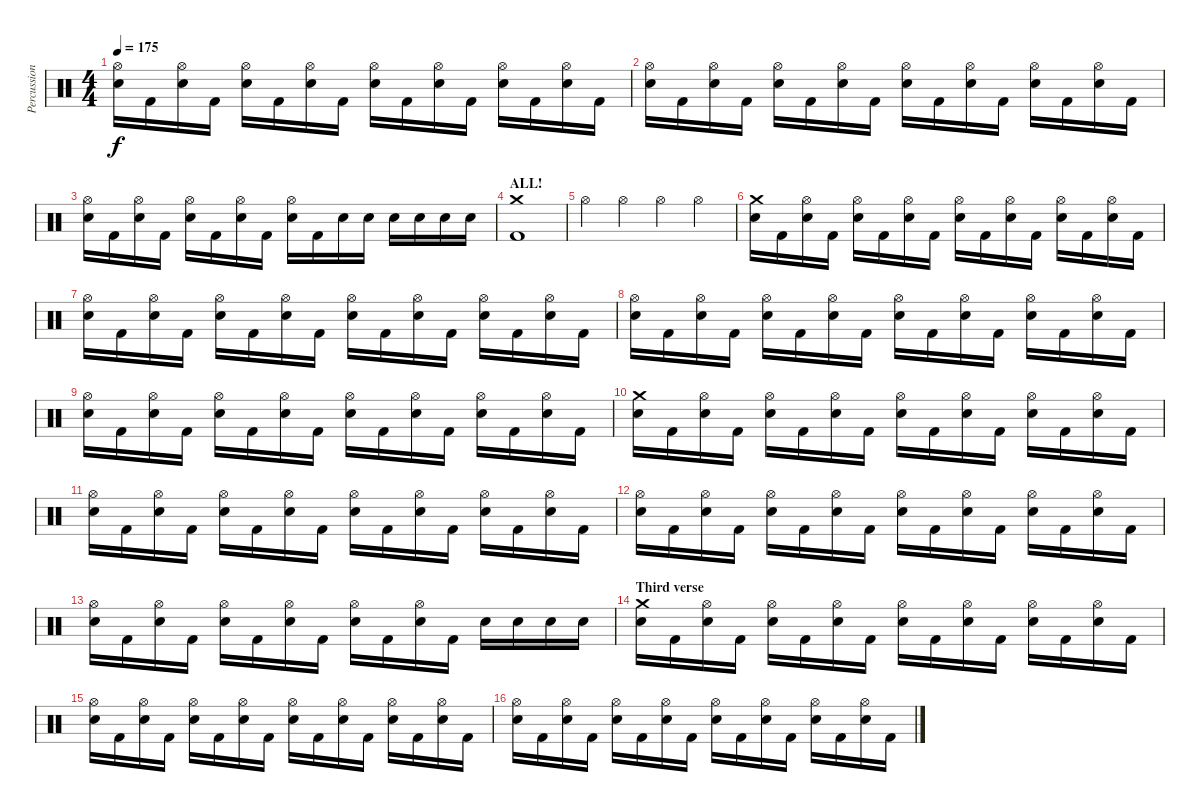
\track ("Percussion" "Percussion") {instrument percussion}
\staff {score}
\articulation defaults
\ts (4 4)
\tempo 175
\clef neutral
\ks c
("Hi-Hat (open)" "Snare (hit) 2").16{dy f} "Kick (hit) 2".16 ("Hi-Hat (open)" "Snare (hit) 2").16 "Kick (hit) 2".16 ("Hi-Hat (open)" "Snare (hit) 2").16 "Kick (hit) 2".16 ("Hi-Hat (open)" "Snare (hit) 2").16 "Kick (hit) 2".16 ("Hi-Hat (open)" "Snare (hit) 2").16 "Kick (hit) 2".16 ("Hi-Hat (open)" "Snare (hit) 2").16 "Kick (hit) 2".16 ("Hi-Hat (open)" "Snare (hit) 2").16 "Kick (hit) 2".16 ("Hi-Hat (open)" "Snare (hit) 2").16 "Kick (hit) 2".16 |
("Hi-Hat (open)" "Snare (hit) 2").16 "Kick (hit) 2".16 ("Hi-Hat (open)" "Snare (hit) 2").16 "Kick (hit) 2".16 ("Hi-Hat (open)" "Snare (hit) 2").16 "Kick (hit) 2".16 ("Hi-Hat (open)" "Snare (hit) 2").16 "Kick (hit) 2".16 ("Hi-Hat (open)" "Snare (hit) 2").16 "Kick (hit) 2".16 ("Hi-Hat (open)" "Snare (hit) 2").16 "Kick (hit) 2".16 ("Hi-Hat (open)" "Snare (hit) 2").16 "Kick (hit) 2".16 ("Hi-Hat (open)" "Snare (hit) 2").16 "Kick (hit) 2".16 |
("Hi-Hat (open)" "Snare (hit) 2").16 "Kick (hit) 2".16 ("Hi-Hat (open)" "Snare (hit) 2").16 "Kick (hit) 2".16 ("Hi-Hat (open)" "Snare (hit) 2").16 "Kick (hit) 2".16 ("Hi-Hat (open)" "Snare (hit) 2").16 "Kick (hit) 2".16 ("Hi-Hat (open)" "Snare (hit) 2").16 "Kick (hit) 2".16 "Snare (hit) 2".16 "Snare (hit) 2".16 "Snare (hit) 2".16 "Snare (hit) 2".16 "Snare (hit) 2".16 "Snare (hit) 2".16 |
\section ("" "ALL!")
("Crash medium (hit)" "Kick (hit) 2").1 |
"Hi-Hat (open)".4 "Hi-Hat (open)".4 "Hi-Hat (open)".4 "Hi-Hat (open)".4 |
("Crash medium (hit)" "Snare (hit) 2").16 "Kick (hit) 2".16 ("Hi-Hat (open)" "Snare (hit) 2").16 "Kick (hit) 2".16 ("Hi-Hat (open)" "Snare (hit) 2").16 "Kick (hit) 2".16 ("Hi-Hat (open)" "Snare (hit) 2").16 "Kick (hit) 2".16 ("Hi-Hat (open)" "Snare (hit) 2").16 "Kick (hit) 2".16 ("Hi-Hat (open)" "Snare (hit) 2").16 "Kick (hit) 2".16 ("Hi-Hat (open)" "Snare (hit) 2").16 "Kick (hit) 2".16 ("Hi-Hat (open)" "Snare (hit) 2").16 "Kick (hit) 2".16 |
("Hi-Hat (open)" "Snare (hit) 2").16 "Kick (hit) 2".16 ("Hi-Hat (open)" "Snare (hit) 2").16 "Kick (hit) 2".16 ("Hi-Hat (open)" "Snare (hit) 2").16 "Kick (hit) 2".16 ("Hi-Hat (open)" "Snare (hit) 2").16 "Kick (hit) 2".16 ("Hi-Hat (open)" "Snare (hit) 2").16 "Kick (hit) 2".16 ("Hi-Hat (open)" "Snare (hit) 2").16 "Kick (hit) 2".16 ("Hi-Hat (open)" "Snare (hit) 2").16 "Kick (hit) 2".16 ("Hi-Hat (open)" "Snare (hit) 2").16 "Kick (hit) 2".16 |
("Hi-Hat (open)" "Snare (hit) 2").16 "Kick (hit) 2".16 ("Hi-Hat (open)" "Snare (hit) 2").16 "Kick (hit) 2".16 ("Hi-Hat (open)" "Snare (hit) 2").16 "Kick (hit) 2".16 ("Hi-Hat (open)" "Snare (hit) 2").16 "Kick (hit) 2".16 ("Hi-Hat (open)" "Snare (hit) 2").16 "Kick (hit) 2".16 ("Hi-Hat (open)" "Snare (hit) 2").16 "Kick (hit) 2".16 ("Hi-Hat (open)" "Snare (hit) 2").16 "Kick (hit) 2".16 ("Hi-Hat (open)" "Snare (hit) 2").16 "Kick (hit) 2".16 |
("Hi-Hat (open)" "Snare (hit) 2").16 "Kick (hit) 2".16 ("Hi-Hat (open)" "Snare (hit) 2").16 "Kick (hit) 2".16 ("Hi-Hat (open)" "Snare (hit) 2").16 "Kick (hit) 2".16 ("Hi-Hat (open)" "Snare (hit) 2").16 "Kick (hit) 2".16 ("Hi-Hat (open)" "Snare (hit) 2").16 "Kick (hit) 2".16 ("Hi-Hat (open)" "Snare (hit) 2").16 "Kick (hit) 2".16 ("Hi-Hat (open)" "Snare (hit) 2").16 "Kick (hit) 2".16 ("Hi-Hat (open)" "Snare (hit) 2").16 "Kick (hit) 2".16 |
("Crash medium (hit)" "Snare (hit) 2").16 "Kick (hit) 2".16 ("Hi-Hat (open)" "Snare (hit) 2").16 "Kick (hit) 2".16 ("Hi-Hat (open)" "Snare (hit) 2").16 "Kick (hit) 2".16 ("Hi-Hat (open)" "Snare (hit) 2").16 "Kick (hit) 2".16 ("Hi-Hat (open)" "Snare (hit) 2").16 "Kick (hit) 2".16 ("Hi-Hat (open)" "Snare (hit) 2").16 "Kick (hit) 2".16 ("Hi-Hat (open)" "Snare (hit) 2").16 "Kick (hit) 2".16 ("Hi-Hat (open)" "Snare (hit) 2").16 "Kick (hit) 2".16 |
("Hi-Hat (open)" "Snare (hit) 2").16 "Kick (hit) 2".16 ("Hi-Hat (open)" "Snare (hit) 2").16 "Kick (hit) 2".16 ("Hi-Hat (open)" "Snare (hit) 2").16 "Kick (hit) 2".16 ("Hi-Hat (open)" "Snare (hit) 2").16 "Kick (hit) 2".16 ("Hi-Hat (open)" "Snare (hit) 2").16 "Kick (hit) 2".16 ("Hi-Hat (open)" "Snare (hit) 2").16 "Kick (hit) 2".16 ("Hi-Hat (open)" "Snare (hit) 2").16 "Kick (hit) 2".16 ("Hi-Hat (open)" "Snare (hit) 2").16 "Kick (hit) 2".16 |
("Hi-Hat (open)" "Snare (hit) 2").16 "Kick (hit) 2".16 ("Hi-Hat (open)" "Snare (hit) 2").16 "Kick (hit) 2".16 ("Hi-Hat (open)" "Snare (hit) 2").16 "Kick (hit) 2".16 ("Hi-Hat (open)" "Snare (hit) 2").16 "Kick (hit) 2".16 ("Hi-Hat (open)" "Snare (hit) 2").16 "Kick (hit) 2".16 ("Hi-Hat (open)" "Snare (hit) 2").16 "Kick (hit) 2".16 ("Hi-Hat (open)" "Snare (hit) 2").16 "Kick (hit) 2".16 ("Hi-Hat (open)" "Snare (hit) 2").16 "Kick (hit) 2".16 |
("Hi-Hat (open)" "Snare (hit) 2").16 "Kick (hit) 2".16 ("Hi-Hat (open)" "Snare (hit) 2").16 "Kick (hit) 2".16 ("Hi-Hat (open)" "Snare (hit) 2").16 "Kick (hit) 2".16 ("Hi-Hat (open)" "Snare (hit) 2").16 "Kick (hit) 2".16 ("Hi-Hat (open)" "Snare (hit) 2").16 "Kick (hit) 2".16 ("Hi-Hat (open)" "Snare (hit) 2").16 "Kick (hit) 2".16 "Snare (hit) 2".16 "Snare (hit) 2".16 "Snare (hit) 2".16 "Snare (hit) 2".16 |
\section ("" "Third verse")
("Crash medium (hit)" "Snare (hit) 2").16 "Kick (hit) 2".16 ("Hi-Hat (open)" "Snare (hit) 2").16 "Kick (hit) 2".16 ("Hi-Hat (open)" "Snare (hit) 2").16 "Kick (hit) 2".16 ("Hi-Hat (open)" "Snare (hit) 2").16 "Kick (hit) 2".16 ("Hi-Hat (open)" "Snare (hit) 2").16 "Kick (hit) 2".16 ("Hi-Hat (open)" "Snare (hit) 2").16 "Kick (hit) 2".16 ("Hi-Hat (open)" "Snare (hit) 2").16 "Kick (hit) 2".16 ("Hi-Hat (open)" "Snare (hit) 2").16 "Kick (hit) 2".16 |
("Hi-Hat (open)" "Snare (hit) 2").16 "Kick (hit) 2".16 ("Hi-Hat (open)" "Snare (hit) 2").16 "Kick (hit) 2".16 ("Hi-Hat (open)" "Snare (hit) 2").16 "Kick (hit) 2".16 ("Hi-Hat (open)" "Snare (hit) 2").16 "Kick (hit) 2".16 ("Hi-Hat (open)" "Snare (hit) 2").16 "Kick (hit) 2".16 ("Hi-Hat (open)" "Snare (hit) 2").16 "Kick (hit) 2".16 ("Hi-Hat (open)" "Snare (hit) 2").16 "Kick (hit) 2".16 ("Hi-Hat (open)" "Snare (hit) 2").16 "Kick (hit) 2".16 |
("Hi-Hat (open)" "Snare (hit) 2").16 "Kick (hit) 2".16 ("Hi-Hat (open)" "Snare (hit) 2").16 "Kick (hit) 2".16 ("Hi-Hat (open)" "Snare (hit) 2").16 "Kick (hit) 2".16 ("Hi-Hat (open)" "Snare (hit) 2").16 "Kick (hit) 2".16 ("Hi-Hat (open)" "Snare (hit) 2").16 "Kick (hit) 2".16 ("Hi-Hat (open)" "Snare (hit) 2").16 "Kick (hit) 2".16 ("Hi-Hat (open)" "Snare (hit) 2").16 "Kick (hit) 2".16 ("Hi-Hat (open)" "Snare (hit) 2").16 "Kick (hit) 2".16
